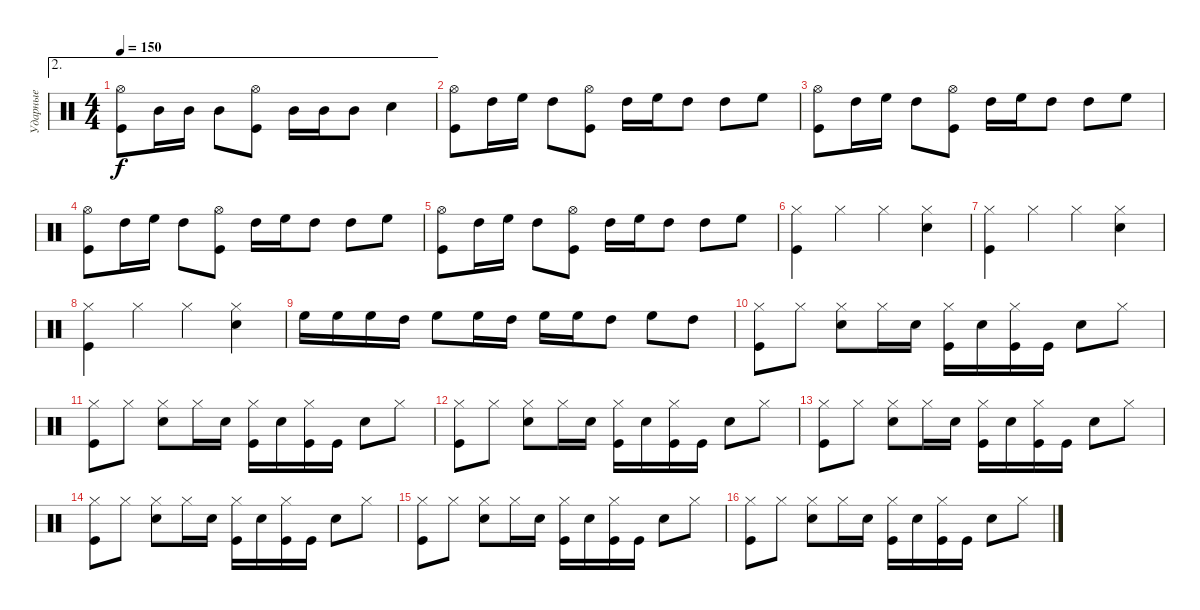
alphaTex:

\track ("Ударные" "Ударные") {instrument percussion}
\staff {score}
\articulation defaults
\ae 2
\ts (4 4)
\tempo 150
\clef neutral
\ks c
("Kick (hit)" "Hi-Hat (open)").8{dy f} "Mid Tom (hit)".16 "Mid Tom (hit)".16 "Mid Tom (hit)".8 ("Kick (hit)" "Hi-Hat (open)").8 "Mid Tom (hit)".16 "Mid Tom (hit)".16 "Mid Tom (hit)".8 "Snare (hit) 2".4 |
("Hi-Hat (open)" "Kick (hit)").8 "High Tom (hit)".16 "High Floor Tom (hit)".16 "High Tom (hit)".8 ("Kick (hit)" "Hi-Hat (open)").8 "High Tom (hit)".16 "High Floor Tom (hit)".16 "High Tom (hit)".8 "High Tom (hit)".8 "High Floor Tom (hit)".8 |
("Hi-Hat (open)" "Kick (hit)").8 "High Tom (hit)".16 "High Floor Tom (hit)".16 "High Tom (hit)".8 ("Kick (hit)" "Hi-Hat (open)").8 "High Tom (hit)".16 "High Floor Tom (hit)".16 "High Tom (hit)".8 "High Tom (hit)".8 "High Floor Tom (hit)".8 |
("Hi-Hat (open)" "Kick (hit)").8 "High Tom (hit)".16 "High Floor Tom (hit)".16 "High Tom (hit)".8 ("Kick (hit)" "Hi-Hat (open)").8 "High Tom (hit)".16 "High Floor Tom (hit)".16 "High Tom (hit)".8 "High Tom (hit)".8 "High Floor Tom (hit)".8 |
("Hi-Hat (open)" "Kick (hit)").8 "High Tom (hit)".16 "High Floor Tom (hit)".16 "High Tom (hit)".8 ("Kick (hit)" "Hi-Hat (open)").8 "High Tom (hit)".16 "High Floor Tom (hit)".16 "High Tom (hit)".8 "High Tom (hit)".8 "High Floor Tom (hit)".8 |
("Hi-Hat (closed)" "Kick (hit)").4 "Hi-Hat (closed)".4 "Hi-Hat (closed)".4 ("Hi-Hat (closed)" "Snare (hit) 2").4 |
("Hi-Hat (closed)" "Kick (hit)").4 "Hi-Hat (closed)".4 "Hi-Hat (closed)".4 ("Hi-Hat (closed)" "Snare (hit) 2").4 |
("Hi-Hat (closed)" "Kick (hit)").4 "Hi-Hat (closed)".4 "Hi-Hat (closed)".4 ("Hi-Hat (closed)" "Snare (hit) 2").4 |
"High Floor Tom (hit)".16 "High Floor Tom (hit)".16 "High Floor Tom (hit)".16 "High Tom (hit)".16 "High Floor Tom (hit)".8 "High Floor Tom (hit)".16 "High Tom (hit)".16 "High Floor Tom (hit)".16 "High Floor Tom (hit)".16 "High Tom (hit)".8 "High Floor Tom (hit)".8 "High Tom (hit)".8 |
("Hi-Hat (closed)" "Kick (hit)").8 "Hi-Hat (closed)".8 ("Hi-Hat (closed)" "Snare (hit) 2").8 "Hi-Hat (closed)".16 "Snare (hit) 2".16 ("Hi-Hat (closed)" "Kick (hit)").16 "Snare (hit) 2".16 ("Kick (hit)" "Hi-Hat (closed)").16 "Kick (hit)".16 "Snare (hit) 2".8 "Hi-Hat (closed)".8 |
("Hi-Hat (closed)" "Kick (hit)").8 "Hi-Hat (closed)".8 ("Hi-Hat (closed)" "Snare (hit) 2").8 "Hi-Hat (closed)".16 "Snare (hit) 2".16 ("Hi-Hat (closed)" "Kick (hit)").16 "Snare (hit) 2".16 ("Kick (hit)" "Hi-Hat (closed)").16 "Kick (hit)".16 "Snare (hit) 2".8 "Hi-Hat (closed)".8 |
("Hi-Hat (closed)" "Kick (hit)").8 "Hi-Hat (closed)".8 ("Hi-Hat (closed)" "Snare (hit) 2").8 "Hi-Hat (closed)".16 "Snare (hit) 2".16 ("Hi-Hat (closed)" "Kick (hit)").16 "Snare (hit) 2".16 ("Kick (hit)" "Hi-Hat (closed)").16 "Kick (hit)".16 "Snare (hit) 2".8 "Hi-Hat (closed)".8 |
("Hi-Hat (closed)" "Kick (hit)").8 "Hi-Hat (closed)".8 ("Hi-Hat (closed)" "Snare (hit) 2").8 "Hi-Hat (closed)".16 "Snare (hit) 2".16 ("Hi-Hat (closed)" "Kick (hit)").16 "Snare (hit) 2".16 ("Kick (hit)" "Hi-Hat (closed)").16 "Kick (hit)".16 "Snare (hit) 2".8 "Hi-Hat (closed)".8 |
("Hi-Hat (closed)" "Kick (hit)").8 "Hi-Hat (closed)".8 ("Hi-Hat (closed)" "Snare (hit) 2").8 "Hi-Hat (closed)".16 "Snare (hit) 2".16 ("Hi-Hat (closed)" "Kick (hit)").16 "Snare (hit) 2".16 ("Kick (hit)" "Hi-Hat (closed)").16 "Kick (hit)".16 "Snare (hit) 2".8 "Hi-Hat (closed)".8 |
("Hi-Hat (closed)" "Kick (hit)").8 "Hi-Hat (closed)".8 ("Hi-Hat (closed)" "Snare (hit) 2").8 "Hi-Hat (closed)".16 "Snare (hit) 2".16 ("Hi-Hat (closed)" "Kick (hit)").16 "Snare (hit) 2".16 ("Kick (hit)" "Hi-Hat (closed)").16 "Kick (hit)".16 "Snare (hit) 2".8 "Hi-Hat (closed)".8 |
("Hi-Hat (closed)" "Kick (hit)").8 "Hi-Hat (closed)".8 ("Hi-Hat (closed)" "Snare (hit) 2").8 "Hi-Hat (closed)".16 "Snare (hit) 2".16 ("Hi-Hat (closed)" "Kick (hit)").16 "Snare (hit) 2".16 ("Kick (hit)" "Hi-Hat (closed)").16 "Kick (hit)".16 "Snare (hit) 2".8 "Hi-Hat (closed)".8
